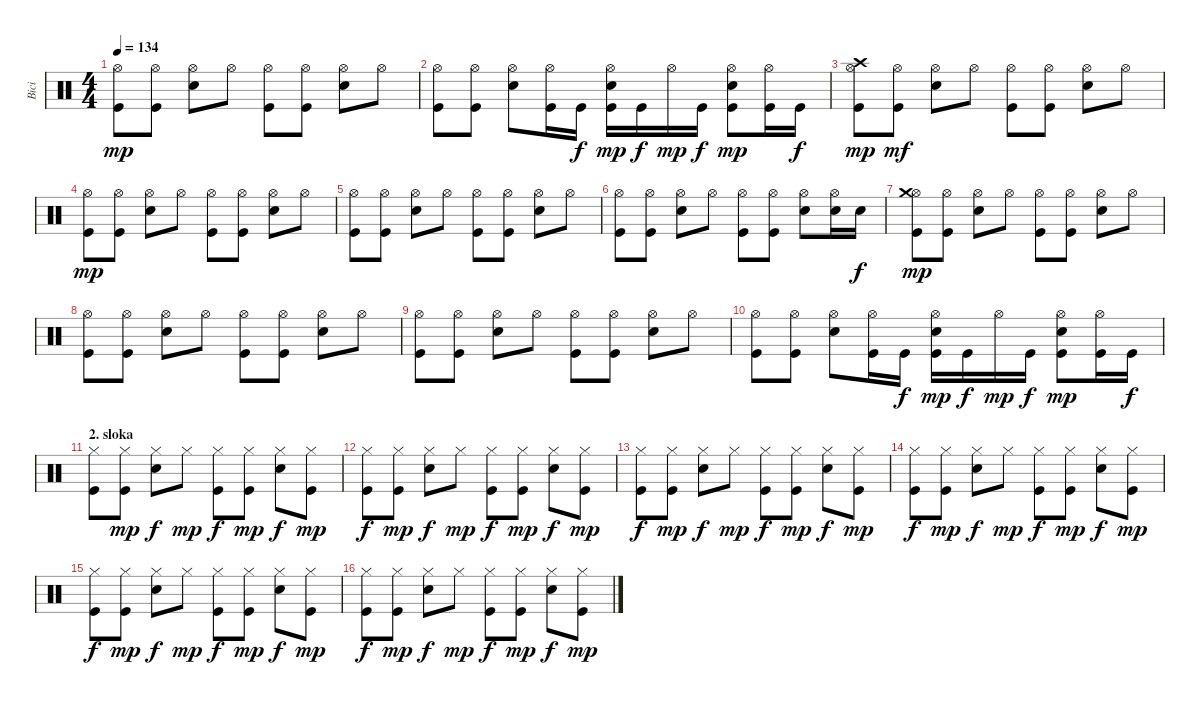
\track ("Bici" "Bici") {instrument percussion}
\staff {score}
\articulation defaults
\ts (4 4)
\tempo 134
\clef neutral
\ks c
("Kick (hit)" "Hi-Hat (open)").8{dy mp} ("Kick (hit)" "Hi-Hat (open)").8 ("Electric Snare (hit)" "Hi-Hat (open)").8 "Hi-Hat (open)".8 ("Kick (hit)" "Hi-Hat (open)").8 ("Kick (hit)" "Hi-Hat (open)").8 ("Electric Snare (hit)" "Hi-Hat (open)").8 "Hi-Hat (open)".8 |
("Kick (hit)" "Hi-Hat (open)").8 ("Kick (hit)" "Hi-Hat (open)").8 ("Electric Snare (hit)" "Hi-Hat (open)").8 ("Kick (hit)" "Hi-Hat (open)").16 "Kick (hit)".16{dy f} ("Kick (hit)" "Electric Snare (hit)" "Hi-Hat (open)").16{dy mp} "Kick (hit)".16{dy f} "Hi-Hat (open)".16{dy mp} "Kick (hit)".16{dy f} ("Kick (hit)" "Electric Snare (hit)" "Hi-Hat (open)").8{dy mp} ("Kick (hit)" "Hi-Hat (open)").16 "Kick (hit)".16{dy f} |
("Kick (hit)" "Hi-Hat (open)" "Crash high (hit)").8{dy mp} ("Kick (hit)" "Hi-Hat (open)").8{dy mf} ("Electric Snare (hit)" "Hi-Hat (open)").8 "Hi-Hat (open)".8 ("Kick (hit)" "Hi-Hat (open)").8 ("Kick (hit)" "Hi-Hat (open)").8 ("Electric Snare (hit)" "Hi-Hat (open)").8 "Hi-Hat (open)".8 |
("Kick (hit)" "Hi-Hat (open)").8{dy mp} ("Kick (hit)" "Hi-Hat (open)").8 ("Electric Snare (hit)" "Hi-Hat (open)").8 "Hi-Hat (open)".8 ("Kick (hit)" "Hi-Hat (open)").8 ("Kick (hit)" "Hi-Hat (open)").8 ("Electric Snare (hit)" "Hi-Hat (open)").8 "Hi-Hat (open)".8 |
("Kick (hit)" "Hi-Hat (open)").8 ("Kick (hit)" "Hi-Hat (open)").8 ("Electric Snare (hit)" "Hi-Hat (open)").8 "Hi-Hat (open)".8 ("Kick (hit)" "Hi-Hat (open)").8 ("Kick (hit)" "Hi-Hat (open)").8 ("Electric Snare (hit)" "Hi-Hat (open)").8 "Hi-Hat (open)".8 |
("Kick (hit)" "Hi-Hat (open)").8 ("Kick (hit)" "Hi-Hat (open)").8 ("Electric Snare (hit)" "Hi-Hat (open)").8 "Hi-Hat (open)".8 ("Kick (hit)" "Hi-Hat (open)").8 ("Kick (hit)" "Hi-Hat (open)").8 ("Electric Snare (hit)" "Hi-Hat (open)").8 ("Electric Snare (hit)" "Hi-Hat (open)").16 "Electric Snare (hit)".16{dy f} |
("Kick (hit)" "Hi-Hat (open)" "Crash medium (hit)").8{dy mp} ("Kick (hit)" "Hi-Hat (open)").8 ("Electric Snare (hit)" "Hi-Hat (open)").8 "Hi-Hat (open)".8 ("Kick (hit)" "Hi-Hat (open)").8 ("Kick (hit)" "Hi-Hat (open)").8 ("Electric Snare (hit)" "Hi-Hat (open)").8 "Hi-Hat (open)".8 |
("Kick (hit)" "Hi-Hat (open)").8 ("Kick (hit)" "Hi-Hat (open)").8 ("Electric Snare (hit)" "Hi-Hat (open)").8 "Hi-Hat (open)".8 ("Kick (hit)" "Hi-Hat (open)").8 ("Kick (hit)" "Hi-Hat (open)").8 ("Electric Snare (hit)" "Hi-Hat (open)").8 "Hi-Hat (open)".8 |
("Kick (hit)" "Hi-Hat (open)").8 ("Kick (hit)" "Hi-Hat (open)").8 ("Electric Snare (hit)" "Hi-Hat (open)").8 "Hi-Hat (open)".8 ("Kick (hit)" "Hi-Hat (open)").8 ("Kick (hit)" "Hi-Hat (open)").8 ("Electric Snare (hit)" "Hi-Hat (open)").8 "Hi-Hat (open)".8 |
("Kick (hit)" "Hi-Hat (open)").8 ("Kick (hit)" "Hi-Hat (open)").8 ("Electric Snare (hit)" "Hi-Hat (open)").8 ("Kick (hit)" "Hi-Hat (open)").16 "Kick (hit)".16{dy f} ("Kick (hit)" "Electric Snare (hit)" "Hi-Hat (open)").16{dy mp} "Kick (hit)".16{dy f} "Hi-Hat (open)".16{dy mp} "Kick (hit)".16{dy f} ("Kick (hit)" "Electric Snare (hit)" "Hi-Hat (open)").8{dy mp} ("Kick (hit)" "Hi-Hat (open)").16 "Kick (hit)".16{dy f} |
\section ("" "2. sloka")
("Kick (hit)" "Hi-Hat (closed)").8 ("Kick (hit)" "Hi-Hat (closed)").8{dy mp} ("Snare (hit) 2" "Hi-Hat (closed)").8{dy f} "Hi-Hat (closed)".8{dy mp} ("Kick (hit)" "Hi-Hat (closed)").8{dy f} ("Kick (hit)" "Hi-Hat (closed)").8{dy mp} ("Snare (hit) 2" "Hi-Hat (closed)").8{dy f} ("Kick (hit)" "Hi-Hat (closed)").8{dy mp} |
("Kick (hit)" "Hi-Hat (closed)").8{dy f} ("Kick (hit)" "Hi-Hat (closed)").8{dy mp} ("Snare (hit) 2" "Hi-Hat (closed)").8{dy f} "Hi-Hat (closed)".8{dy mp} ("Kick (hit)" "Hi-Hat (closed)").8{dy f} ("Kick (hit)" "Hi-Hat (closed)").8{dy mp} ("Snare (hit) 2" "Hi-Hat (closed)").8{dy f} ("Kick (hit)" "Hi-Hat (closed)").8{dy mp} |
("Kick (hit)" "Hi-Hat (closed)").8{dy f} ("Kick (hit)" "Hi-Hat (closed)").8{dy mp} ("Snare (hit) 2" "Hi-Hat (closed)").8{dy f} "Hi-Hat (closed)".8{dy mp} ("Kick (hit)" "Hi-Hat (closed)").8{dy f} ("Kick (hit)" "Hi-Hat (closed)").8{dy mp} ("Snare (hit) 2" "Hi-Hat (closed)").8{dy f} ("Kick (hit)" "Hi-Hat (closed)").8{dy mp} |
("Kick (hit)" "Hi-Hat (closed)").8{dy f} ("Kick (hit)" "Hi-Hat (closed)").8{dy mp} ("Snare (hit) 2" "Hi-Hat (closed)").8{dy f} "Hi-Hat (closed)".8{dy mp} ("Kick (hit)" "Hi-Hat (closed)").8{dy f} ("Kick (hit)" "Hi-Hat (closed)").8{dy mp} ("Snare (hit) 2" "Hi-Hat (closed)").8{dy f} ("Kick (hit)" "Hi-Hat (closed)").8{dy mp} |
("Kick (hit)" "Hi-Hat (closed)").8{dy f} ("Kick (hit)" "Hi-Hat (closed)").8{dy mp} ("Snare (hit) 2" "Hi-Hat (closed)").8{dy f} "Hi-Hat (closed)".8{dy mp} ("Kick (hit)" "Hi-Hat (closed)").8{dy f} ("Kick (hit)" "Hi-Hat (closed)").8{dy mp} ("Snare (hit) 2" "Hi-Hat (closed)").8{dy f} ("Kick (hit)" "Hi-Hat (closed)").8{dy mp} |
("Kick (hit)" "Hi-Hat (closed)").8{dy f} ("Kick (hit)" "Hi-Hat (closed)").8{dy mp} ("Snare (hit) 2" "Hi-Hat (closed)").8{dy f} "Hi-Hat (closed)".8{dy mp} ("Kick (hit)" "Hi-Hat (closed)").8{dy f} ("Kick (hit)" "Hi-Hat (closed)").8{dy mp} ("Snare (hit) 2" "Hi-Hat (closed)").8{dy f} ("Kick (hit)" "Hi-Hat (closed)").8{dy mp}
